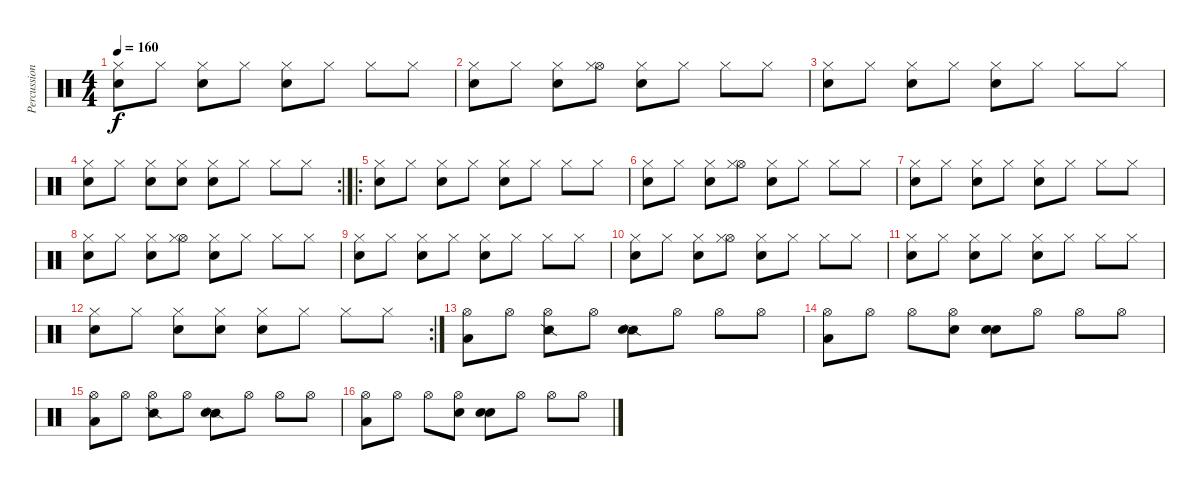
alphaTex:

\track ("Percussions" "Percussion") {instrument percussion}
\staff {score}
\articulation defaults
\ts (4 4)
\tempo 160
\clef neutral
\ks c
("Electric Snare (hit)" "Hi-Hat (closed)").8{dy f} "Hi-Hat (closed)".8 ("Electric Snare (hit)" "Hi-Hat (closed)").8 "Hi-Hat (closed)".8 ("Snare (hit) 2" "Hi-Hat (closed)").8 "Hi-Hat (closed)".8 "Hi-Hat (closed)".8 "Hi-Hat (closed)".8 |
("Electric Snare (hit)" "Hi-Hat (closed)").8 "Hi-Hat (closed)".8 ("Electric Snare (hit)" "Hi-Hat (closed)").8 ("Hi-Hat (open)" "Hi-Hat (closed)").8 ("Snare (hit) 2" "Hi-Hat (closed)").8 "Hi-Hat (closed)".8 "Hi-Hat (closed)".8 "Hi-Hat (closed)".8 |
("Electric Snare (hit)" "Hi-Hat (closed)").8 "Hi-Hat (closed)".8 ("Electric Snare (hit)" "Hi-Hat (closed)").8 "Hi-Hat (closed)".8 ("Snare (hit) 2" "Hi-Hat (closed)").8 "Hi-Hat (closed)".8 "Hi-Hat (closed)".8 "Hi-Hat (closed)".8 |
\rc 2
("Electric Snare (hit)" "Hi-Hat (closed)").8 "Hi-Hat (closed)".8 ("Electric Snare (hit)" "Hi-Hat (closed)").8 ("Electric Snare (hit)" "Hi-Hat (closed)").8 ("Snare (hit) 2" "Hi-Hat (closed)").8 "Hi-Hat (closed)".8 "Hi-Hat (closed)".8 "Hi-Hat (closed)".8 |
\ro
("Electric Snare (hit)" "Hi-Hat (closed)").8 "Hi-Hat (closed)".8 ("Electric Snare (hit)" "Hi-Hat (closed)").8 "Hi-Hat (closed)".8 ("Snare (hit) 2" "Hi-Hat (closed)").8 "Hi-Hat (closed)".8 "Hi-Hat (closed)".8 "Hi-Hat (closed)".8 |
("Electric Snare (hit)" "Hi-Hat (closed)").8 "Hi-Hat (closed)".8 ("Electric Snare (hit)" "Hi-Hat (closed)").8 ("Hi-Hat (open)" "Hi-Hat (closed)").8 ("Snare (hit) 2" "Hi-Hat (closed)").8 "Hi-Hat (closed)".8 "Hi-Hat (closed)".8 "Hi-Hat (closed)".8 |
("Electric Snare (hit)" "Hi-Hat (closed)").8 "Hi-Hat (closed)".8 ("Electric Snare (hit)" "Hi-Hat (closed)").8 "Hi-Hat (closed)".8 ("Snare (hit) 2" "Hi-Hat (closed)").8 "Hi-Hat (closed)".8 "Hi-Hat (closed)".8 "Hi-Hat (closed)".8 |
("Electric Snare (hit)" "Hi-Hat (closed)").8 "Hi-Hat (closed)".8 ("Electric Snare (hit)" "Hi-Hat (closed)").8 ("Hi-Hat (open)" "Hi-Hat (closed)").8 ("Snare (hit) 2" "Hi-Hat (closed)").8 "Hi-Hat (closed)".8 "Hi-Hat (closed)".8 "Hi-Hat (closed)".8 |
("Electric Snare (hit)" "Hi-Hat (closed)").8 "Hi-Hat (closed)".8 ("Electric Snare (hit)" "Hi-Hat (closed)").8 "Hi-Hat (closed)".8 ("Snare (hit) 2" "Hi-Hat (closed)").8 "Hi-Hat (closed)".8 "Hi-Hat (closed)".8 "Hi-Hat (closed)".8 |
("Electric Snare (hit)" "Hi-Hat (closed)").8 "Hi-Hat (closed)".8 ("Electric Snare (hit)" "Hi-Hat (closed)").8 ("Hi-Hat (open)" "Hi-Hat (closed)").8 ("Snare (hit) 2" "Hi-Hat (closed)").8 "Hi-Hat (closed)".8 "Hi-Hat (closed)".8 "Hi-Hat (closed)".8 |
("Electric Snare (hit)" "Hi-Hat (closed)").8 "Hi-Hat (closed)".8 ("Electric Snare (hit)" "Hi-Hat (closed)").8 "Hi-Hat (closed)".8 ("Snare (hit) 2" "Hi-Hat (closed)").8 "Hi-Hat (closed)".8 "Hi-Hat (closed)".8 "Hi-Hat (closed)".8 |
\rc 2
("Electric Snare (hit)" "Hi-Hat (closed)").8 "Hi-Hat (closed)".8 ("Electric Snare (hit)" "Hi-Hat (closed)").8 ("Electric Snare (hit)" "Hi-Hat (closed)").8 ("Snare (hit) 2" "Hi-Hat (closed)").8 "Hi-Hat (closed)".8 "Hi-Hat (closed)".8 "Hi-Hat (closed)".8 |
("Low Floor Tom (hit)" "Hi-Hat (open)").8 "Hi-Hat (open)".8 ("Snare (side stick) 2" "Hi-Hat (open)").8 "Hi-Hat (open)".8 ("Snare (side stick) 2" "Snare (hit) 2").8 "Hi-Hat (open)".8 "Hi-Hat (open)".8 "Hi-Hat (open)".8 |
("Low Floor Tom (hit)" "Hi-Hat (open)").8 "Hi-Hat (open)".8 "Hi-Hat (open)".8 ("Electric Snare (hit)" "Hi-Hat (open)").8 ("Electric Snare (hit)" "Snare (hit) 2").8 "Hi-Hat (open)".8 "Hi-Hat (open)".8 "Hi-Hat (open)".8 |
("Low Floor Tom (hit)" "Hi-Hat (open)").8 "Hi-Hat (open)".8 ("Snare (side stick) 2" "Hi-Hat (open)").8 "Hi-Hat (open)".8 ("Snare (side stick) 2" "Snare (hit) 2").8 "Hi-Hat (open)".8 "Hi-Hat (open)".8 "Hi-Hat (open)".8 |
("Low Floor Tom (hit)" "Hi-Hat (open)").8 "Hi-Hat (open)".8 "Hi-Hat (open)".8 ("Electric Snare (hit)" "Hi-Hat (open)").8 ("Electric Snare (hit)" "Snare (hit) 2").8 "Hi-Hat (open)".8 "Hi-Hat (open)".8 "Hi-Hat (open)".8
